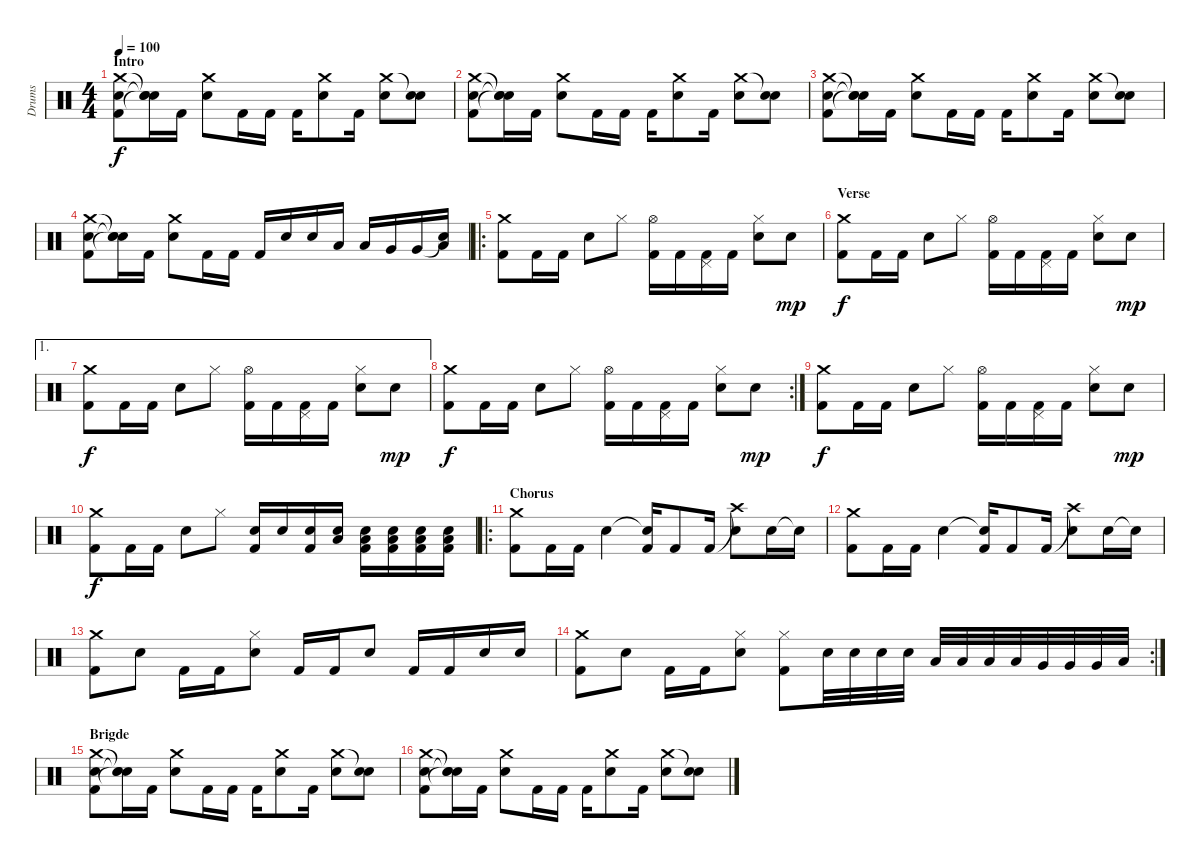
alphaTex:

\track ("Drums" "Drums") {instrument percussion}
\staff {score}
\articulation defaults
\ts (4 4)
\section ("" "Intro")
\tempo 100
\clef neutral
\ks c
("Crash medium (hit)" "Electric Snare (hit)" "Kick (hit) 2").8{dy f} ("Snare (hit)"{t} "Snare (hit)"{t} "Snare (hit)"{t}).16 "Kick (hit) 2".16 ("Crash medium (hit)" "Electric Snare (hit)").8 "Kick (hit) 2".16 "Kick (hit) 2".16 "Kick (hit) 2".16 ("Crash medium (hit)" "Electric Snare (hit)").8 "Kick (hit) 2".16 ("Crash medium (hit)" "Electric Snare (hit)").8 ("Snare (hit)"{t} "Electric Snare (hit)").8 |
("Crash medium (hit)" "Electric Snare (hit)" "Kick (hit) 2").8 ("Snare (hit)"{t} "Snare (hit)"{t} "Snare (hit)"{t}).16 "Kick (hit) 2".16 ("Crash medium (hit)" "Electric Snare (hit)").8 "Kick (hit) 2".16 "Kick (hit) 2".16 "Kick (hit) 2".16 ("Crash medium (hit)" "Electric Snare (hit)").8 "Kick (hit) 2".16 ("Crash medium (hit)" "Electric Snare (hit)").8 ("Snare (hit)"{t} "Electric Snare (hit)").8 |
("Crash medium (hit)" "Electric Snare (hit)" "Kick (hit) 2").8 ("Snare (hit)"{t} "Snare (hit)"{t} "Snare (hit)"{t}).16 "Kick (hit) 2".16 ("Crash medium (hit)" "Electric Snare (hit)").8 "Kick (hit) 2".16 "Kick (hit) 2".16 "Kick (hit) 2".16 ("Crash medium (hit)" "Electric Snare (hit)").8 "Kick (hit) 2".16 ("Crash medium (hit)" "Electric Snare (hit)").8 ("Snare (hit)"{t} "Electric Snare (hit)").8 |
("Crash medium (hit)" "Electric Snare (hit)" "Kick (hit) 2").8 ("Snare (hit)"{t} "Snare (hit)"{t} "Snare (hit)"{t}).16 "Kick (hit) 2".16 ("Crash medium (hit)" "Electric Snare (hit)").8 "Kick (hit) 2".16 "Kick (hit) 2".16 "Kick (hit) 2".16 "Electric Snare (hit)".16 "Electric Snare (hit)".16 "Low Tom (hit)".16 "Low Tom (hit)".16 "Very Low Tom (hit)".16 "Very Low Tom (hit)".16 ("Snare (hit)"{t} "Low Floor Tom (hit)").16 |
\ro
("Crash medium (hit)" "Kick (hit) 2").8 "Kick (hit) 2".16 "Kick (hit) 2".16 "Electric Snare (hit)".8 "Hi-Hat (closed)".8 ("Hi-Hat (open)" "Kick (hit) 2").16 "Kick (hit) 2".16 ("Pedal Hi-Hat (hit)" "Kick (hit) 2").16 "Kick (hit) 2".16 ("Hi-Hat (closed)" "Electric Snare (hit)").8 "Electric Snare (hit)".8{dy mp} |
\section ("" "Verse")
("Crash medium (hit)" "Kick (hit) 2").8{dy f} "Kick (hit) 2".16 "Kick (hit) 2".16 "Electric Snare (hit)".8 "Hi-Hat (closed)".8 ("Hi-Hat (open)" "Kick (hit) 2").16 "Kick (hit) 2".16 ("Pedal Hi-Hat (hit)" "Kick (hit) 2").16 "Kick (hit) 2".16 ("Hi-Hat (closed)" "Electric Snare (hit)").8 "Electric Snare (hit)".8{dy mp} |
\ae 1
("Crash medium (hit)" "Kick (hit) 2").8{dy f} "Kick (hit) 2".16 "Kick (hit) 2".16 "Electric Snare (hit)".8 "Hi-Hat (closed)".8 ("Hi-Hat (open)" "Kick (hit) 2").16 "Kick (hit) 2".16 ("Pedal Hi-Hat (hit)" "Kick (hit) 2").16 "Kick (hit) 2".16 ("Hi-Hat (closed)" "Electric Snare (hit)").8 "Electric Snare (hit)".8{dy mp} |
\rc 2
("Crash medium (hit)" "Kick (hit) 2").8{dy f} "Kick (hit) 2".16 "Kick (hit) 2".16 "Electric Snare (hit)".8 "Hi-Hat (closed)".8 ("Hi-Hat (open)" "Kick (hit) 2").16 "Kick (hit) 2".16 ("Pedal Hi-Hat (hit)" "Kick (hit) 2").16 "Kick (hit) 2".16 ("Hi-Hat (closed)" "Electric Snare (hit)").8 "Electric Snare (hit)".8{dy mp} |
("Crash medium (hit)" "Kick (hit) 2").8{dy f} "Kick (hit) 2".16 "Kick (hit) 2".16 "Electric Snare (hit)".8 "Hi-Hat (closed)".8 ("Hi-Hat (open)" "Kick (hit) 2").16 "Kick (hit) 2".16 ("Pedal Hi-Hat (hit)" "Kick (hit) 2").16 "Kick (hit) 2".16 ("Hi-Hat (closed)" "Electric Snare (hit)").8 "Electric Snare (hit)".8{dy mp} |
("Crash medium (hit)" "Kick (hit) 2").8{dy f} "Kick (hit) 2".16 "Kick (hit) 2".16 "Electric Snare (hit)".8 "Hi-Hat (closed)".8 ("Electric Snare (hit)" "Kick (hit) 2").16 "Electric Snare (hit)".16 ("Electric Snare (hit)" "Kick (hit) 2").16 ("Electric Snare (hit)" "Low Floor Tom (hit)").16 ("Electric Snare (hit)" "Low Floor Tom (hit)" "Kick (hit) 2").16 ("Electric Snare (hit)" "Low Floor Tom (hit)" "Kick (hit) 2").16 ("Electric Snare (hit)" "Low Floor Tom (hit)" "Kick (hit) 2").16 ("Electric Snare (hit)" "Low Floor Tom (hit)" "Kick (hit) 2").16 |
\ro
\section ("" "Chorus")
("Crash medium (hit)" "Kick (hit) 2").8 "Kick (hit) 2".16 "Kick (hit) 2".16 "Electric Snare (hit)".4 ("Electric Snare (hit)"{t} "Kick (hit) 2").16 "Kick (hit) 2".8 "Kick (hit) 2".16 ("Crash high (hit)"{t} "Electric Snare (hit)").8 "Electric Snare (hit)".16 "Snare (hit)"{t}.16 |
("Crash medium (hit)" "Kick (hit) 2").8 "Kick (hit) 2".16 "Kick (hit) 2".16 "Electric Snare (hit)".4 ("Electric Snare (hit)"{t} "Kick (hit) 2").16 "Kick (hit) 2".8 "Kick (hit) 2".16 ("Crash high (hit)"{t} "Electric Snare (hit)").8 "Electric Snare (hit)".16 "Snare (hit)"{t}.16 |
("Crash medium (hit)" "Kick (hit) 2").8 "Electric Snare (hit)".8 "Kick (hit) 2".16 "Kick (hit) 2".16 ("Hi-Hat (closed)" "Electric Snare (hit)").8 "Kick (hit) 2".16 "Kick (hit) 2".16 "Electric Snare (hit)".8 "Kick (hit) 2".16 "Kick (hit) 2".16 "Electric Snare (hit)".16 "Electric Snare (hit)".16 |
\rc 2
("Crash medium (hit)" "Kick (hit) 2").8 "Electric Snare (hit)".8 "Kick (hit) 2".16 "Kick (hit) 2".16 ("Hi-Hat (closed)" "Electric Snare (hit)").8 ("Hi-Hat (closed)" "Kick (hit) 2").8 "Electric Snare (hit)".32 "Electric Snare (hit)".32 "Electric Snare (hit)".32 "Electric Snare (hit)".32 "Low Tom (hit)".32 "Low Tom (hit)".32 "Low Tom (hit)".32 "Low Tom (hit)".32 "Very Low Tom (hit)".32 "Very Low Tom (hit)".32 "Very Low Tom (hit)".32 "Low Floor Tom (hit)".32 |
\section ("" "Brigde")
("Crash medium (hit)" "Electric Snare (hit)" "Kick (hit) 2").8 ("Snare (hit)"{t} "Snare (hit)"{t} "Snare (hit)"{t}).16 "Kick (hit) 2".16 ("Crash medium (hit)" "Electric Snare (hit)").8 "Kick (hit) 2".16 "Kick (hit) 2".16 "Kick (hit) 2".16 ("Crash medium (hit)" "Electric Snare (hit)").8 "Kick (hit) 2".16 ("Crash medium (hit)" "Electric Snare (hit)").8 ("Snare (hit)"{t} "Electric Snare (hit)").8 |
("Crash medium (hit)" "Electric Snare (hit)" "Kick (hit) 2").8 ("Snare (hit)"{t} "Snare (hit)"{t} "Snare (hit)"{t}).16 "Kick (hit) 2".16 ("Crash medium (hit)" "Electric Snare (hit)").8 "Kick (hit) 2".16 "Kick (hit) 2".16 "Kick (hit) 2".16 ("Crash medium (hit)" "Electric Snare (hit)").8 "Kick (hit) 2".16 ("Crash medium (hit)" "Electric Snare (hit)").8 ("Snare (hit)"{t} "Electric Snare (hit)").8
